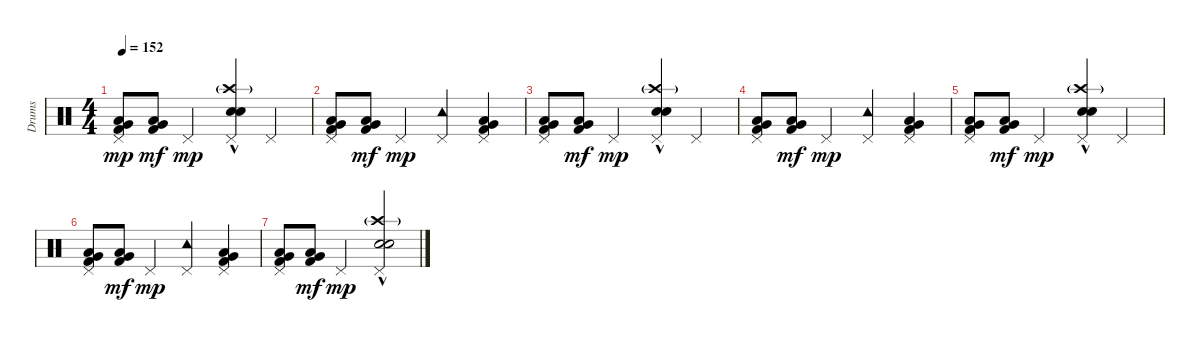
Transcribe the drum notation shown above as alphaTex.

\track ("Drums" "Drums") {instrument percussion}
\staff {score}
\articulation defaults
\ts (4 4)
\tempo 152
\clef neutral
\ks c
("Very Low Tom (hit)" "Low Floor Tom (hit)" "Pedal Hi-Hat (hit)" "Kick (hit) 2").8{dy mp} ("Very Low Tom (hit)" "Low Floor Tom (hit)" "Kick (hit) 2").8{dy mf} "Pedal Hi-Hat (hit)".4{dy mp} ("Crash high (hit)"{g} "Electric Snare (hit)" "Snare (hit) 2"{hac} "Pedal Hi-Hat (hit)").4 "Pedal Hi-Hat (hit)".4 |
("Very Low Tom (hit)" "Low Floor Tom (hit)" "Pedal Hi-Hat (hit)" "Kick (hit) 2").8 ("Very Low Tom (hit)" "Low Floor Tom (hit)" "Kick (hit) 2").8{dy mf} "Pedal Hi-Hat (hit)".4{dy mp} ("Tambourine (hit)" "Pedal Hi-Hat (hit)").4 ("Very Low Tom (hit)" "Low Floor Tom (hit)" "Pedal Hi-Hat (hit)" "Kick (hit) 2").4 |
("Very Low Tom (hit)" "Low Floor Tom (hit)" "Pedal Hi-Hat (hit)" "Kick (hit) 2").8 ("Very Low Tom (hit)" "Low Floor Tom (hit)" "Kick (hit) 2").8{dy mf} "Pedal Hi-Hat (hit)".4{dy mp} ("Crash high (hit)"{g} "Electric Snare (hit)" "Snare (hit) 2"{hac} "Pedal Hi-Hat (hit)").4 "Pedal Hi-Hat (hit)".4 |
("Very Low Tom (hit)" "Low Floor Tom (hit)" "Pedal Hi-Hat (hit)" "Kick (hit) 2").8 ("Very Low Tom (hit)" "Low Floor Tom (hit)" "Kick (hit) 2").8{dy mf} "Pedal Hi-Hat (hit)".4{dy mp} ("Tambourine (hit)" "Pedal Hi-Hat (hit)").4 ("Very Low Tom (hit)" "Low Floor Tom (hit)" "Pedal Hi-Hat (hit)" "Kick (hit) 2").4 |
("Very Low Tom (hit)" "Low Floor Tom (hit)" "Pedal Hi-Hat (hit)" "Kick (hit) 2").8 ("Very Low Tom (hit)" "Low Floor Tom (hit)" "Kick (hit) 2").8{dy mf} "Pedal Hi-Hat (hit)".4{dy mp} ("Crash high (hit)"{g} "Electric Snare (hit)" "Snare (hit) 2"{hac} "Pedal Hi-Hat (hit)").4 "Pedal Hi-Hat (hit)".4 |
("Very Low Tom (hit)" "Low Floor Tom (hit)" "Pedal Hi-Hat (hit)" "Kick (hit) 2").8 ("Very Low Tom (hit)" "Low Floor Tom (hit)" "Kick (hit) 2").8{dy mf} "Pedal Hi-Hat (hit)".4{dy mp} ("Tambourine (hit)" "Pedal Hi-Hat (hit)").4 ("Very Low Tom (hit)" "Low Floor Tom (hit)" "Pedal Hi-Hat (hit)" "Kick (hit) 2").4 |
("Very Low Tom (hit)" "Low Floor Tom (hit)" "Pedal Hi-Hat (hit)" "Kick (hit) 2").8 ("Very Low Tom (hit)" "Low Floor Tom (hit)" "Kick (hit) 2").8{dy mf} "Pedal Hi-Hat (hit)".4{dy mp} ("Crash high (hit)"{g} "Electric Snare (hit)" "Snare (hit) 2"{hac} "Pedal Hi-Hat (hit)").2
